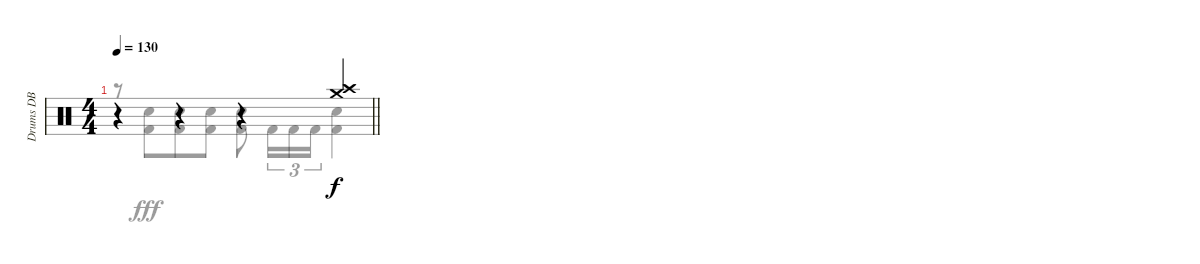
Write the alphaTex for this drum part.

\track ("Drums DB" "Drums DB") {instrument percussion}
\staff {score}
\articulation defaults
\voice
\ts (4 4)
\tempo 130
\clef neutral
\barLineRight lightlight
\ks c
r.4{dy fff beam merge} r.4{beam merge} r.4{beam merge} ("Crash medium (hit)" "Crash high (hit)").4{dy f} |
\voice
\clef neutral
\ottava regular
\simile none
\barLineRight lightlight
\ks c
r.8{dy fff} ("Snare (hit) 2" "Kick (hit) 2").8{beam merge} ("Snare (hit) 2" "Kick (hit) 2").8 ("Snare (hit) 2" "Kick (hit) 2").8 ("Snare (hit) 2" "Kick (hit) 2").8 "Kick (hit) 2".16{tu (3 2) beam merge} "Kick (hit) 2".16{tu (3 2)} "Kick (hit) 2".16{tu (3 2)} ("Snare (hit) 2" "Kick (hit) 2").4 |
